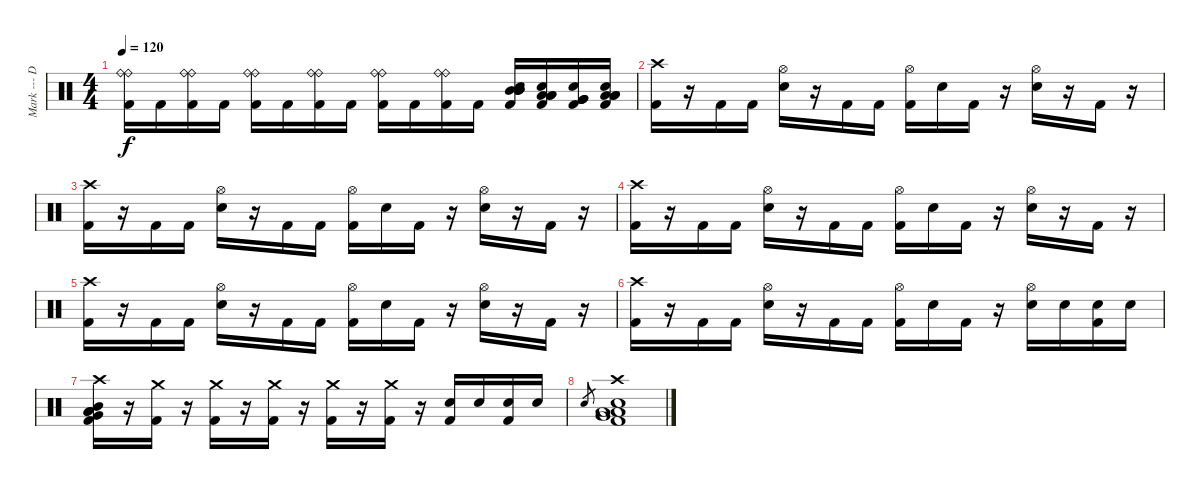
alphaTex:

\track ("Mark --- Drums" "Mark --- D") {instrument percussion}
\staff {score}
\articulation defaults
\ts (4 4)
\tempo 120
\clef neutral
\ks c
("Ride (bell)" "Ride (bell)" "Kick (hit) 2").16{dy f} "Kick (hit) 2".16 ("Ride (bell)" "Ride (bell)" "Kick (hit) 2").16 "Kick (hit) 2".16 ("Ride (bell)" "Ride (bell)" "Kick (hit) 2").16 "Kick (hit) 2".16 ("Ride (bell)" "Ride (bell)" "Kick (hit) 2").16 "Kick (hit) 2".16 ("Ride (bell)" "Ride (bell)" "Kick (hit) 2").16 "Kick (hit) 2".16 ("Ride (bell)" "Ride (bell)" "Kick (hit) 2").16 "Kick (hit) 2".16 ("Mid Tom (hit)" "Mid Tom (hit)" "Electric Snare (hit)" "Mid Tom (hit)" "Kick (hit) 2").16 ("Low Tom (hit)" "Low Tom (hit)" "Electric Snare (hit)" "Low Tom (hit)" "Kick (hit) 2").16 ("Very Low Tom (hit)" "Very Low Tom (hit)" "Electric Snare (hit)" "Very Low Tom (hit)" "Kick (hit) 2").16 ("Low Floor Tom (hit)" "Low Floor Tom (hit)" "Electric Snare (hit)" "Low Floor Tom (hit)" "Kick (hit) 2").16 |
("Crash high (hit)" "Kick (hit) 2").16 r.16 "Kick (hit) 2".16 "Kick (hit) 2".16 ("Hi-Hat (open)" "Electric Snare (hit)").16 r.16 "Kick (hit) 2".16 "Kick (hit) 2".16 ("Hi-Hat (open)" "Kick (hit) 2").16 "Electric Snare (hit)".16 "Kick (hit) 2".16 r.16 ("Hi-Hat (open)" "Electric Snare (hit)").16 r.16 "Kick (hit) 2".16 r.16 |
("Crash high (hit)" "Kick (hit) 2").16 r.16 "Kick (hit) 2".16 "Kick (hit) 2".16 ("Hi-Hat (open)" "Electric Snare (hit)").16 r.16 "Kick (hit) 2".16 "Kick (hit) 2".16 ("Hi-Hat (open)" "Kick (hit) 2").16 "Electric Snare (hit)".16 "Kick (hit) 2".16 r.16 ("Hi-Hat (open)" "Electric Snare (hit)").16 r.16 "Kick (hit) 2".16 r.16 |
("Crash high (hit)" "Kick (hit) 2").16 r.16 "Kick (hit) 2".16 "Kick (hit) 2".16 ("Hi-Hat (open)" "Electric Snare (hit)").16 r.16 "Kick (hit) 2".16 "Kick (hit) 2".16 ("Hi-Hat (open)" "Kick (hit) 2").16 "Electric Snare (hit)".16 "Kick (hit) 2".16 r.16 ("Hi-Hat (open)" "Electric Snare (hit)").16 r.16 "Kick (hit) 2".16 r.16 |
("Crash high (hit)" "Kick (hit) 2").16 r.16 "Kick (hit) 2".16 "Kick (hit) 2".16 ("Hi-Hat (open)" "Electric Snare (hit)").16 r.16 "Kick (hit) 2".16 "Kick (hit) 2".16 ("Hi-Hat (open)" "Kick (hit) 2").16 "Electric Snare (hit)".16 "Kick (hit) 2".16 r.16 ("Hi-Hat (open)" "Electric Snare (hit)").16 r.16 "Kick (hit) 2".16 r.16 |
("Crash high (hit)" "Kick (hit) 2").16 r.16 "Kick (hit) 2".16 "Kick (hit) 2".16 ("Hi-Hat (open)" "Electric Snare (hit)").16 r.16 "Kick (hit) 2".16 "Kick (hit) 2".16 ("Hi-Hat (open)" "Kick (hit) 2").16 "Electric Snare (hit)".16 "Kick (hit) 2".16 r.16 ("Hi-Hat (open)" "Electric Snare (hit)").16 "Electric Snare (hit)".16 ("Electric Snare (hit)" "Kick (hit) 2").16 "Electric Snare (hit)".16 |
("Mid Tom (hit)" "Crash high (hit)" "Very Low Tom (hit)" "Kick (hit) 2" "Low Floor Tom (hit)" "Low Tom (hit)").16 r.16 ("Crash medium (hit)" "Kick (hit) 2").16 r.16 ("Crash medium (hit)" "Kick (hit) 2").16 r.16 ("Crash medium (hit)" "Kick (hit) 2").16 r.16 ("Crash medium (hit)" "Kick (hit) 2").16 r.16 ("Crash medium (hit)" "Kick (hit) 2").16 r.16 ("Electric Snare (hit)" "Kick (hit) 2").16 "Electric Snare (hit)".16 ("Electric Snare (hit)" "Kick (hit) 2").16 "Electric Snare (hit)".16 |
"Electric Snare (hit)".8{gr} ("Electric Snare (hit)" "Crash high (hit)" "Very Low Tom (hit)" "Low Floor Tom (hit)" "Low Tom (hit)" "Kick (hit) 2").1
